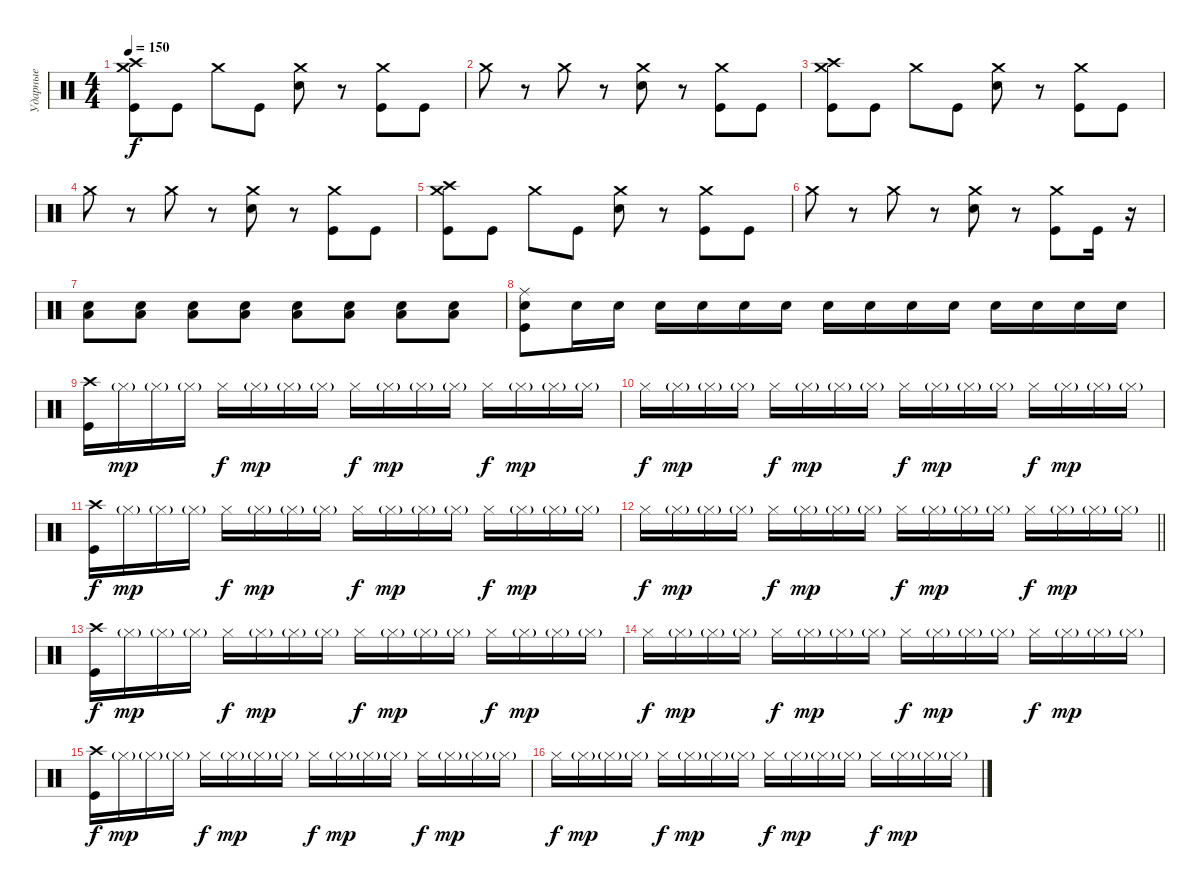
\track ("Ударные" "Ударные") {instrument percussion}
\staff {score}
\articulation defaults
\ts (4 4)
\tempo 150
\clef neutral
\ks c
("Crash high (hit)" "Crash medium (hit)" "Kick (hit)").8{dy f} "Kick (hit)".8 "Crash medium (hit)".8 "Kick (hit)".8 ("Crash medium (hit)" "Electric Snare (hit)").8 r.8 ("Crash medium (hit)" "Kick (hit)").8 "Kick (hit)".8 |
"Crash medium (hit)".8 r.8 "Crash medium (hit)".8 r.8 ("Crash medium (hit)" "Electric Snare (hit)").8 r.8 ("Crash medium (hit)" "Kick (hit)").8 "Kick (hit)".8 |
("Crash high (hit)" "Crash medium (hit)" "Kick (hit)").8 "Kick (hit)".8 "Crash medium (hit)".8 "Kick (hit)".8 ("Crash medium (hit)" "Electric Snare (hit)").8 r.8 ("Crash medium (hit)" "Kick (hit)").8 "Kick (hit)".8 |
"Crash medium (hit)".8 r.8 "Crash medium (hit)".8 r.8 ("Crash medium (hit)" "Electric Snare (hit)").8 r.8 ("Crash medium (hit)" "Kick (hit)").8 "Kick (hit)".8 |
("Crash high (hit)" "Crash medium (hit)" "Kick (hit)").8 "Kick (hit)".8 "Crash medium (hit)".8 "Kick (hit)".8 ("Crash medium (hit)" "Electric Snare (hit)").8 r.8 ("Crash medium (hit)" "Kick (hit)").8 "Kick (hit)".8 |
"Crash medium (hit)".8 r.8 "Crash medium (hit)".8 r.8 ("Crash medium (hit)" "Electric Snare (hit)").8 r.8 ("Crash medium (hit)" "Kick (hit)").8 "Kick (hit)".16 r.16{volume 8} |
("Electric Snare (hit)" "Low Floor Tom (hit)").8{volume 13} ("Electric Snare (hit)" "Low Floor Tom (hit)").8 ("Electric Snare (hit)" "Low Floor Tom (hit)").8 ("Electric Snare (hit)" "Low Floor Tom (hit)").8 ("Electric Snare (hit)" "Low Floor Tom (hit)").8 ("Electric Snare (hit)" "Low Floor Tom (hit)").8 ("Electric Snare (hit)" "Low Floor Tom (hit)").8 ("Electric Snare (hit)" "Low Floor Tom (hit)").8 |
("Ride (middle)" "Electric Snare (hit)" "Kick (hit)").8 "Electric Snare (hit)".16 "Electric Snare (hit)".16 "Electric Snare (hit)".16 "Electric Snare (hit)".16 "Electric Snare (hit)".16 "Electric Snare (hit)".16 "Electric Snare (hit)".16 "Electric Snare (hit)".16 "Electric Snare (hit)".16 "Electric Snare (hit)".16 "Electric Snare (hit)".16 "Electric Snare (hit)".16 "Electric Snare (hit)".16 "Electric Snare (hit)".16 |
("Crash high (hit)" "Kick (hit)").16 "Hi-Hat (closed)"{g}.16{dy mp} "Hi-Hat (closed)"{g}.16 "Hi-Hat (closed)"{g}.16 "Hi-Hat (closed)".16{dy f} "Hi-Hat (closed)"{g}.16{dy mp} "Hi-Hat (closed)"{g}.16 "Hi-Hat (closed)"{g}.16 "Hi-Hat (closed)".16{dy f} "Hi-Hat (closed)"{g}.16{dy mp} "Hi-Hat (closed)"{g}.16 "Hi-Hat (closed)"{g}.16 "Hi-Hat (closed)".16{dy f} "Hi-Hat (closed)"{g}.16{dy mp} "Hi-Hat (closed)"{g}.16 "Hi-Hat (closed)"{g}.16 |
"Hi-Hat (closed)".16{dy f} "Hi-Hat (closed)"{g}.16{dy mp} "Hi-Hat (closed)"{g}.16 "Hi-Hat (closed)"{g}.16 "Hi-Hat (closed)".16{dy f} "Hi-Hat (closed)"{g}.16{dy mp} "Hi-Hat (closed)"{g}.16 "Hi-Hat (closed)"{g}.16 "Hi-Hat (closed)".16{dy f} "Hi-Hat (closed)"{g}.16{dy mp} "Hi-Hat (closed)"{g}.16 "Hi-Hat (closed)"{g}.16 "Hi-Hat (closed)".16{dy f} "Hi-Hat (closed)"{g}.16{dy mp} "Hi-Hat (closed)"{g}.16 "Hi-Hat (closed)"{g}.16 |
("Crash high (hit)" "Kick (hit)").16{dy f} "Hi-Hat (closed)"{g}.16{dy mp} "Hi-Hat (closed)"{g}.16 "Hi-Hat (closed)"{g}.16 "Hi-Hat (closed)".16{dy f} "Hi-Hat (closed)"{g}.16{dy mp} "Hi-Hat (closed)"{g}.16 "Hi-Hat (closed)"{g}.16 "Hi-Hat (closed)".16{dy f} "Hi-Hat (closed)"{g}.16{dy mp} "Hi-Hat (closed)"{g}.16 "Hi-Hat (closed)"{g}.16 "Hi-Hat (closed)".16{dy f} "Hi-Hat (closed)"{g}.16{dy mp} "Hi-Hat (closed)"{g}.16 "Hi-Hat (closed)"{g}.16 |
\barLineRight lightlight "Hi-Hat (closed)".16{dy f} "Hi-Hat (closed)"{g}.16{dy mp} "Hi-Hat (closed)"{g}.16 "Hi-Hat (closed)"{g}.16 "Hi-Hat (closed)".16{dy f} "Hi-Hat (closed)"{g}.16{dy mp} "Hi-Hat (closed)"{g}.16 "Hi-Hat (closed)"{g}.16 "Hi-Hat (closed)".16{dy f} "Hi-Hat (closed)"{g}.16{dy mp} "Hi-Hat (closed)"{g}.16 "Hi-Hat (closed)"{g}.16 "Hi-Hat (closed)".16{dy f} "Hi-Hat (closed)"{g}.16{dy mp} "Hi-Hat (closed)"{g}.16 "Hi-Hat (closed)"{g}.16
|
("Crash high (hit)" "Kick (hit)").16{dy f} "Hi-Hat (closed)"{g}.16{dy mp} "Hi-Hat (closed)"{g}.16 "Hi-Hat (closed)"{g}.16 "Hi-Hat (closed)".16{dy f} "Hi-Hat (closed)"{g}.16{dy mp} "Hi-Hat (closed)"{g}.16 "Hi-Hat (closed)"{g}.16 "Hi-Hat (closed)".16{dy f} "Hi-Hat (closed)"{g}.16{dy mp} "Hi-Hat (closed)"{g}.16 "Hi-Hat (closed)"{g}.16 "Hi-Hat (closed)".16{dy f} "Hi-Hat (closed)"{g}.16{dy mp} "Hi-Hat (closed)"{g}.16 "Hi-Hat (closed)"{g}.16 |
"Hi-Hat (closed)".16{dy f} "Hi-Hat (closed)"{g}.16{dy mp} "Hi-Hat (closed)"{g}.16 "Hi-Hat (closed)"{g}.16 "Hi-Hat (closed)".16{dy f} "Hi-Hat (closed)"{g}.16{dy mp} "Hi-Hat (closed)"{g}.16 "Hi-Hat (closed)"{g}.16 "Hi-Hat (closed)".16{dy f} "Hi-Hat (closed)"{g}.16{dy mp} "Hi-Hat (closed)"{g}.16 "Hi-Hat (closed)"{g}.16 "Hi-Hat (closed)".16{dy f} "Hi-Hat (closed)"{g}.16{dy mp} "Hi-Hat (closed)"{g}.16 "Hi-Hat (closed)"{g}.16 |
("Crash high (hit)" "Kick (hit)").16{dy f} "Hi-Hat (closed)"{g}.16{dy mp} "Hi-Hat (closed)"{g}.16 "Hi-Hat (closed)"{g}.16 "Hi-Hat (closed)".16{dy f} "Hi-Hat (closed)"{g}.16{dy mp} "Hi-Hat (closed)"{g}.16 "Hi-Hat (closed)"{g}.16 "Hi-Hat (closed)".16{dy f} "Hi-Hat (closed)"{g}.16{dy mp} "Hi-Hat (closed)"{g}.16 "Hi-Hat (closed)"{g}.16 "Hi-Hat (closed)".16{dy f} "Hi-Hat (closed)"{g}.16{dy mp} "Hi-Hat (closed)"{g}.16 "Hi-Hat (closed)"{g}.16 |
"Hi-Hat (closed)".16{dy f} "Hi-Hat (closed)"{g}.16{dy mp} "Hi-Hat (closed)"{g}.16 "Hi-Hat (closed)"{g}.16 "Hi-Hat (closed)".16{dy f} "Hi-Hat (closed)"{g}.16{dy mp} "Hi-Hat (closed)"{g}.16 "Hi-Hat (closed)"{g}.16 "Hi-Hat (closed)".16{dy f} "Hi-Hat (closed)"{g}.16{dy mp} "Hi-Hat (closed)"{g}.16 "Hi-Hat (closed)"{g}.16 "Hi-Hat (closed)".16{dy f} "Hi-Hat (closed)"{g}.16{dy mp} "Hi-Hat (closed)"{g}.16 "Hi-Hat (closed)"{g}.16
